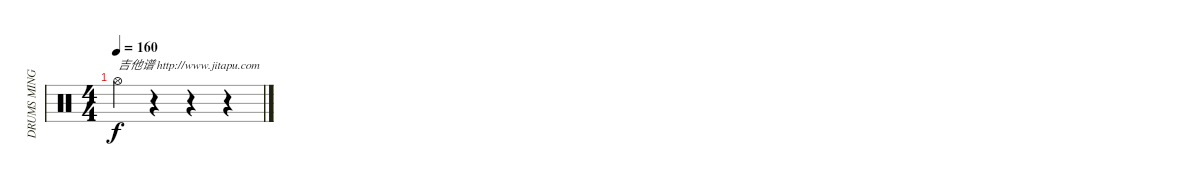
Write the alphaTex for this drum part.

\track ("DRUMS MING" "DRUMS MING") {instrument percussion}
\staff {score}
\articulation defaults
\ts (4 4)
\tempo 160
\clef neutral
\ks c "Hi-Hat (open)".4{txt "吉他谱 http://www.jitapu.com" dy f}
r.4 r.4 r.4
